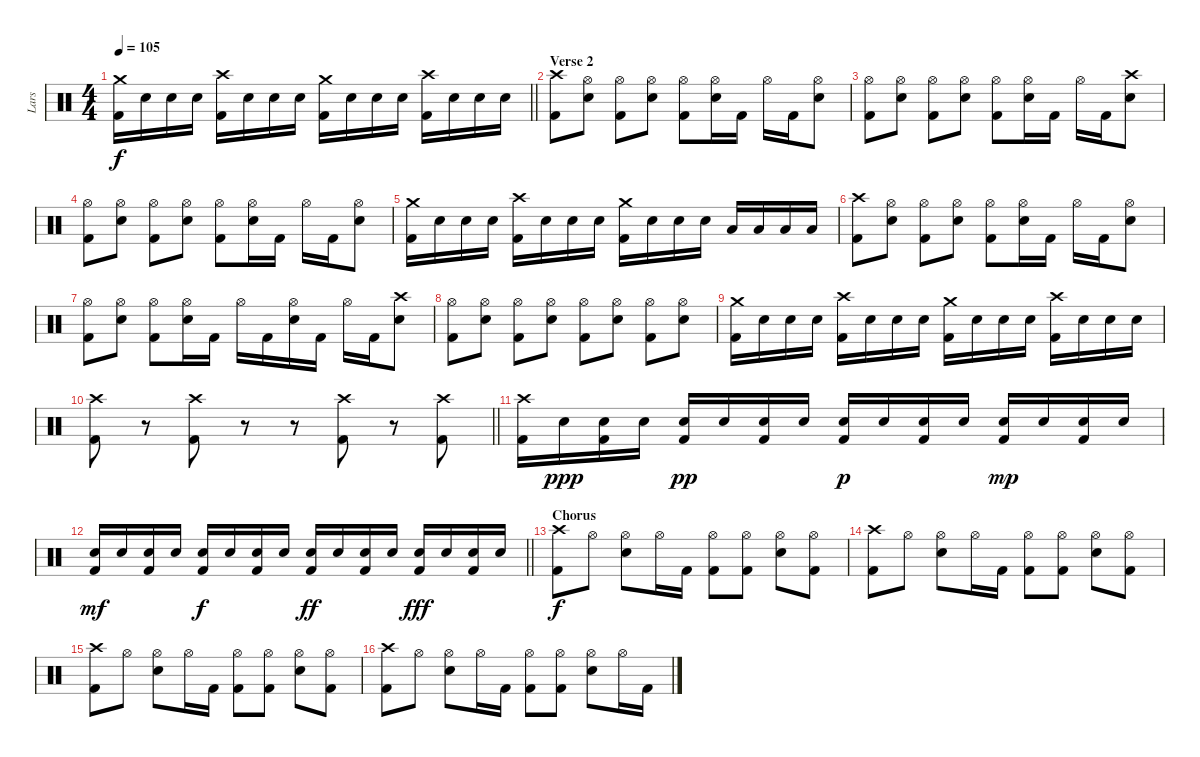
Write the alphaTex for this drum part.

\track ("Lars" "Lars") {instrument percussion}
\staff {score}
\articulation defaults
\ts (4 4)
\tempo 105
\clef neutral
\barLineRight lightlight
\ks c
("Crash medium (hit)" "Kick (hit) 2").16{dy f} "Electric Snare (hit)".16 "Electric Snare (hit)".16 "Electric Snare (hit)".16 ("Crash high (hit)" "Kick (hit) 2").16 "Electric Snare (hit)".16 "Electric Snare (hit)".16 "Electric Snare (hit)".16 ("Crash medium (hit)" "Kick (hit) 2").16 "Electric Snare (hit)".16 "Electric Snare (hit)".16 "Electric Snare (hit)".16 ("Crash high (hit)" "Kick (hit) 2").16 "Electric Snare (hit)".16 "Electric Snare (hit)".16 "Electric Snare (hit)".16 |
\section ("" "Verse 2")
("Crash high (hit)" "Kick (hit) 2").8 ("Hi-Hat (open)" "Electric Snare (hit)").8 ("Hi-Hat (open)" "Kick (hit) 2").8 ("Hi-Hat (open)" "Electric Snare (hit)").8 ("Hi-Hat (open)" "Kick (hit) 2").8 ("Hi-Hat (open)" "Electric Snare (hit)").16 "Kick (hit) 2".16 "Hi-Hat (open)".16 "Kick (hit) 2".16 ("Hi-Hat (open)" "Electric Snare (hit)").8 |
("Hi-Hat (open)" "Kick (hit) 2").8 ("Hi-Hat (open)" "Electric Snare (hit)").8 ("Hi-Hat (open)" "Kick (hit) 2").8 ("Hi-Hat (open)" "Electric Snare (hit)").8 ("Hi-Hat (open)" "Kick (hit) 2").8 ("Hi-Hat (open)" "Electric Snare (hit)").16 "Kick (hit) 2".16 "Hi-Hat (open)".16 "Kick (hit) 2".16 ("Crash high (hit)" "Electric Snare (hit)").8 |
("Hi-Hat (open)" "Kick (hit) 2").8 ("Hi-Hat (open)" "Electric Snare (hit)").8 ("Hi-Hat (open)" "Kick (hit) 2").8 ("Hi-Hat (open)" "Electric Snare (hit)").8 ("Hi-Hat (open)" "Kick (hit) 2").8 ("Hi-Hat (open)" "Electric Snare (hit)").16 "Kick (hit) 2".16 "Hi-Hat (open)".16 "Kick (hit) 2".16 ("Hi-Hat (open)" "Electric Snare (hit)").8 |
("Crash medium (hit)" "Kick (hit) 2").16 "Electric Snare (hit)".16 "Electric Snare (hit)".16 "Electric Snare (hit)".16 ("Crash high (hit)" "Kick (hit) 2").16 "Electric Snare (hit)".16 "Electric Snare (hit)".16 "Electric Snare (hit)".16 ("Crash medium (hit)" "Kick (hit) 2").16 "Electric Snare (hit)".16 "Electric Snare (hit)".16 "Electric Snare (hit)".16 "Low Tom (hit)".16 "Low Tom (hit)".16 "Low Floor Tom (hit)".16 "Low Floor Tom (hit)".16 |
("Crash high (hit)" "Kick (hit) 2").8 ("Hi-Hat (open)" "Electric Snare (hit)").8 ("Hi-Hat (open)" "Kick (hit) 2").8 ("Hi-Hat (open)" "Electric Snare (hit)").8 ("Hi-Hat (open)" "Kick (hit) 2").8 ("Hi-Hat (open)" "Electric Snare (hit)").16 "Kick (hit) 2".16 "Hi-Hat (open)".16 "Kick (hit) 2".16 ("Hi-Hat (open)" "Electric Snare (hit)").8 |
("Hi-Hat (open)" "Kick (hit) 2").8 ("Hi-Hat (open)" "Electric Snare (hit)").8 ("Hi-Hat (open)" "Kick (hit) 2").8 ("Hi-Hat (open)" "Electric Snare (hit)").16 "Kick (hit) 2".16 "Hi-Hat (open)".16 "Kick (hit) 2".16 ("Hi-Hat (open)" "Electric Snare (hit)").16 "Kick (hit) 2".16 "Hi-Hat (open)".16 "Kick (hit) 2".16 ("Crash high (hit)" "Electric Snare (hit)").8 |
("Hi-Hat (open)" "Kick (hit) 2").8 ("Hi-Hat (open)" "Electric Snare (hit)").8 ("Hi-Hat (open)" "Kick (hit) 2").8 ("Hi-Hat (open)" "Electric Snare (hit)").8 ("Hi-Hat (open)" "Kick (hit) 2").8 ("Hi-Hat (open)" "Electric Snare (hit)").8 ("Hi-Hat (open)" "Kick (hit) 2").8 ("Hi-Hat (open)" "Electric Snare (hit)").8 |
("Crash medium (hit)" "Kick (hit) 2").16 "Electric Snare (hit)".16 "Electric Snare (hit)".16 "Electric Snare (hit)".16 ("Crash high (hit)" "Kick (hit) 2").16 "Electric Snare (hit)".16 "Electric Snare (hit)".16 "Electric Snare (hit)".16 ("Crash medium (hit)" "Kick (hit) 2").16 "Electric Snare (hit)".16 "Electric Snare (hit)".16 "Electric Snare (hit)".16 ("Crash high (hit)" "Kick (hit) 2").16 "Electric Snare (hit)".16 "Electric Snare (hit)".16 "Electric Snare (hit)".16 |
\barLineRight lightlight
("Crash high (hit)" "Kick (hit) 2").8 r.8 ("Crash high (hit)" "Kick (hit) 2").8 r.8 r.8 ("Crash high (hit)" "Kick (hit) 2").8 r.8 ("Crash high (hit)" "Kick (hit) 2").8 |
("Crash high (hit)" "Kick (hit) 2").16 "Electric Snare (hit)".16{dy ppp} ("Electric Snare (hit)" "Kick (hit) 2").16 "Electric Snare (hit)".16 ("Electric Snare (hit)" "Kick (hit) 2").16{dy pp} "Electric Snare (hit)".16 ("Electric Snare (hit)" "Kick (hit) 2").16 "Electric Snare (hit)".16 ("Electric Snare (hit)" "Kick (hit) 2").16{dy p} "Electric Snare (hit)".16 ("Electric Snare (hit)" "Kick (hit) 2").16 "Electric Snare (hit)".16 ("Electric Snare (hit)" "Kick (hit) 2").16{dy mp} "Electric Snare (hit)".16 ("Electric Snare (hit)" "Kick (hit) 2").16 "Electric Snare (hit)".16 |
\barLineRight lightlight
("Electric Snare (hit)" "Kick (hit) 2").16{dy mf} "Electric Snare (hit)".16 ("Electric Snare (hit)" "Kick (hit) 2").16 "Electric Snare (hit)".16 ("Electric Snare (hit)" "Kick (hit) 2").16{dy f} "Electric Snare (hit)".16 ("Electric Snare (hit)" "Kick (hit) 2").16 "Electric Snare (hit)".16 ("Electric Snare (hit)" "Kick (hit) 2").16{dy ff} "Electric Snare (hit)".16 ("Electric Snare (hit)" "Kick (hit) 2").16 "Electric Snare (hit)".16 ("Electric Snare (hit)" "Kick (hit) 2").16{dy fff} "Electric Snare (hit)".16 ("Electric Snare (hit)" "Kick (hit) 2").16 "Electric Snare (hit)".16 |
\section ("" "Chorus")
("Crash high (hit)" "Kick (hit) 2").8{dy f} "Hi-Hat (open)".8 ("Hi-Hat (open)" "Electric Snare (hit)").8 "Hi-Hat (open)".16 "Kick (hit) 2".16 ("Hi-Hat (open)" "Kick (hit) 2").8 ("Hi-Hat (open)" "Kick (hit) 2").8 ("Hi-Hat (open)" "Electric Snare (hit)").8 ("Hi-Hat (open)" "Kick (hit) 2").8 |
("Crash high (hit)" "Kick (hit) 2").8 "Hi-Hat (open)".8 ("Hi-Hat (open)" "Electric Snare (hit)").8 "Hi-Hat (open)".16 "Kick (hit) 2".16 ("Hi-Hat (open)" "Kick (hit) 2").8 ("Hi-Hat (open)" "Kick (hit) 2").8 ("Hi-Hat (open)" "Electric Snare (hit)").8 ("Hi-Hat (open)" "Kick (hit) 2").8 |
("Crash high (hit)" "Kick (hit) 2").8 "Hi-Hat (open)".8 ("Hi-Hat (open)" "Electric Snare (hit)").8 "Hi-Hat (open)".16 "Kick (hit) 2".16 ("Hi-Hat (open)" "Kick (hit) 2").8 ("Hi-Hat (open)" "Kick (hit) 2").8 ("Hi-Hat (open)" "Electric Snare (hit)").8 ("Hi-Hat (open)" "Kick (hit) 2").8 |
("Crash high (hit)" "Kick (hit) 2").8 "Hi-Hat (open)".8 ("Hi-Hat (open)" "Electric Snare (hit)").8 "Hi-Hat (open)".16 "Kick (hit) 2".16 ("Hi-Hat (open)" "Kick (hit) 2").8 ("Hi-Hat (open)" "Kick (hit) 2").8 ("Hi-Hat (open)" "Electric Snare (hit)").8 "Hi-Hat (open)".16 "Kick (hit) 2".16
